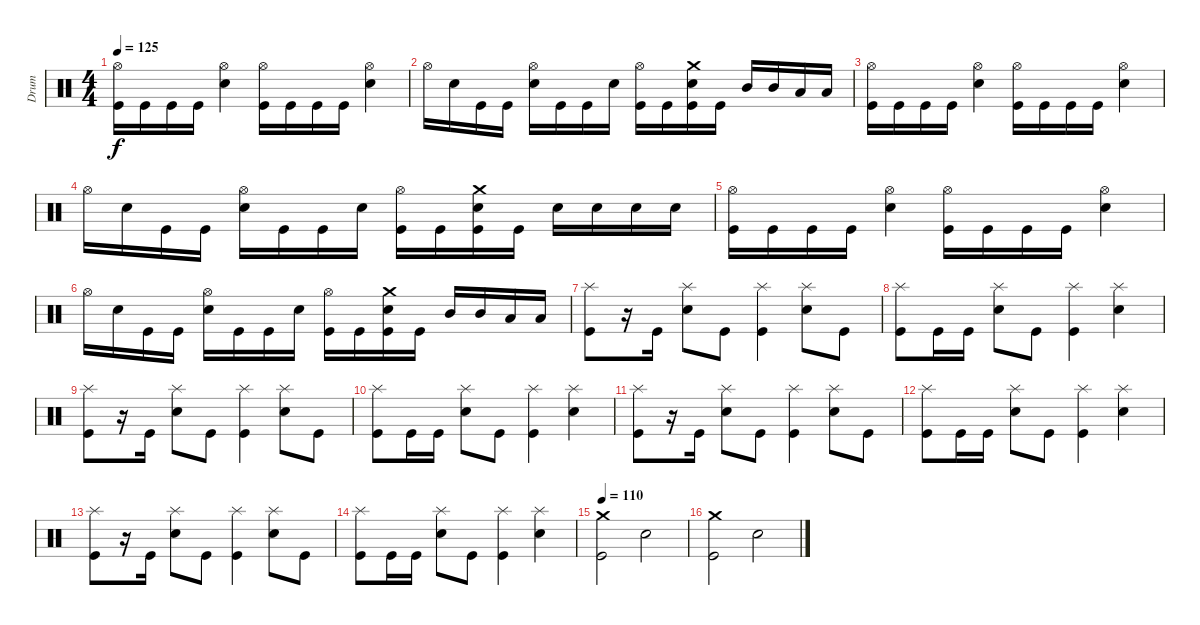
\track ("Drum" "Drum") {instrument percussion}
\staff {score}
\articulation defaults
\ts (4 4)
\tempo 125
\clef neutral
\ks c
("Kick (hit)" "Hi-Hat (open)").16{dy f} "Kick (hit)".16 "Kick (hit)".16 "Kick (hit)".16 ("Electric Snare (hit)" "Hi-Hat (open)").4 ("Kick (hit)" "Hi-Hat (open)").16 "Kick (hit)".16 "Kick (hit)".16 "Kick (hit)".16 ("Electric Snare (hit)" "Hi-Hat (open)").4 |
"Hi-Hat (open)".16 "Electric Snare (hit)".16 "Kick (hit)".16 "Kick (hit)".16 ("Electric Snare (hit)" "Hi-Hat (open)").16 "Kick (hit)".16 "Kick (hit)".16 "Electric Snare (hit)".16 ("Kick (hit)" "Hi-Hat (open)").16 "Kick (hit)".16 ("Kick (hit)" "Electric Snare (hit)" "Crash medium (hit)").16 "Kick (hit)".16 "Mid Tom (hit)".16 "Mid Tom (hit)".16 "Low Tom (hit)".16 "Low Tom (hit)".16 |
("Kick (hit)" "Hi-Hat (open)").16 "Kick (hit)".16 "Kick (hit)".16 "Kick (hit)".16 ("Electric Snare (hit)" "Hi-Hat (open)").4 ("Kick (hit)" "Hi-Hat (open)").16 "Kick (hit)".16 "Kick (hit)".16 "Kick (hit)".16 ("Electric Snare (hit)" "Hi-Hat (open)").4 |
"Hi-Hat (open)".16 "Electric Snare (hit)".16 "Kick (hit)".16 "Kick (hit)".16 ("Electric Snare (hit)" "Hi-Hat (open)").16 "Kick (hit)".16 "Kick (hit)".16 "Electric Snare (hit)".16 ("Kick (hit)" "Hi-Hat (open)").16 "Kick (hit)".16 ("Kick (hit)" "Electric Snare (hit)" "Crash medium (hit)").16 "Kick (hit)".16 "Electric Snare (hit)".16 "Electric Snare (hit)".16 "Electric Snare (hit)".16 "Electric Snare (hit)".16 |
("Kick (hit)" "Hi-Hat (open)").16 "Kick (hit)".16 "Kick (hit)".16 "Kick (hit)".16 ("Electric Snare (hit)" "Hi-Hat (open)").4 ("Kick (hit)" "Hi-Hat (open)").16 "Kick (hit)".16 "Kick (hit)".16 "Kick (hit)".16 ("Electric Snare (hit)" "Hi-Hat (open)").4 |
"Hi-Hat (open)".16 "Electric Snare (hit)".16 "Kick (hit)".16 "Kick (hit)".16 ("Electric Snare (hit)" "Hi-Hat (open)").16 "Kick (hit)".16 "Kick (hit)".16 "Electric Snare (hit)".16 ("Kick (hit)" "Hi-Hat (open)").16 "Kick (hit)".16 ("Kick (hit)" "Electric Snare (hit)" "Crash medium (hit)").16 "Kick (hit)".16 "Mid Tom (hit)".16 "Mid Tom (hit)".16 "Low Tom (hit)".16 "Low Tom (hit)".16 |
("Kick (hit)" "Splash (hit)").8 r.16 "Kick (hit)".16 ("Electric Snare (hit)" "Splash (hit)").8 "Kick (hit)".8 ("Kick (hit)" "Splash (hit)").4 ("Electric Snare (hit)" "Splash (hit)").8 "Kick (hit)".8 |
("Kick (hit)" "Splash (hit)").8 "Kick (hit)".16 "Kick (hit)".16 ("Electric Snare (hit)" "Splash (hit)").8 "Kick (hit)".8 ("Kick (hit)" "Splash (hit)").4 ("Electric Snare (hit)" "Splash (hit)").4 |
("Kick (hit)" "Splash (hit)").8 r.16 "Kick (hit)".16 ("Electric Snare (hit)" "Splash (hit)").8 "Kick (hit)".8 ("Kick (hit)" "Splash (hit)").4 ("Electric Snare (hit)" "Splash (hit)").8 "Kick (hit)".8 |
("Kick (hit)" "Splash (hit)").8 "Kick (hit)".16 "Kick (hit)".16 ("Electric Snare (hit)" "Splash (hit)").8 "Kick (hit)".8 ("Kick (hit)" "Splash (hit)").4 ("Electric Snare (hit)" "Splash (hit)").4 |
("Kick (hit)" "Splash (hit)").8 r.16 "Kick (hit)".16 ("Electric Snare (hit)" "Splash (hit)").8 "Kick (hit)".8 ("Kick (hit)" "Splash (hit)").4 ("Electric Snare (hit)" "Splash (hit)").8 "Kick (hit)".8 |
("Kick (hit)" "Splash (hit)").8 "Kick (hit)".16 "Kick (hit)".16 ("Electric Snare (hit)" "Splash (hit)").8 "Kick (hit)".8 ("Kick (hit)" "Splash (hit)").4 ("Electric Snare (hit)" "Splash (hit)").4 |
("Kick (hit)" "Splash (hit)").8 r.16 "Kick (hit)".16 ("Electric Snare (hit)" "Splash (hit)").8 "Kick (hit)".8 ("Kick (hit)" "Splash (hit)").4 ("Electric Snare (hit)" "Splash (hit)").8 "Kick (hit)".8 |
("Kick (hit)" "Splash (hit)").8 "Kick (hit)".16 "Kick (hit)".16 ("Electric Snare (hit)" "Splash (hit)").8 "Kick (hit)".8 ("Kick (hit)" "Splash (hit)").4 ("Electric Snare (hit)" "Splash (hit)").4 |
\tempo 110
("Kick (hit)" "Crash medium (hit)").2 "Electric Snare (hit)".2 |
("Kick (hit)" "Crash medium (hit)").2 "Electric Snare (hit)".2
